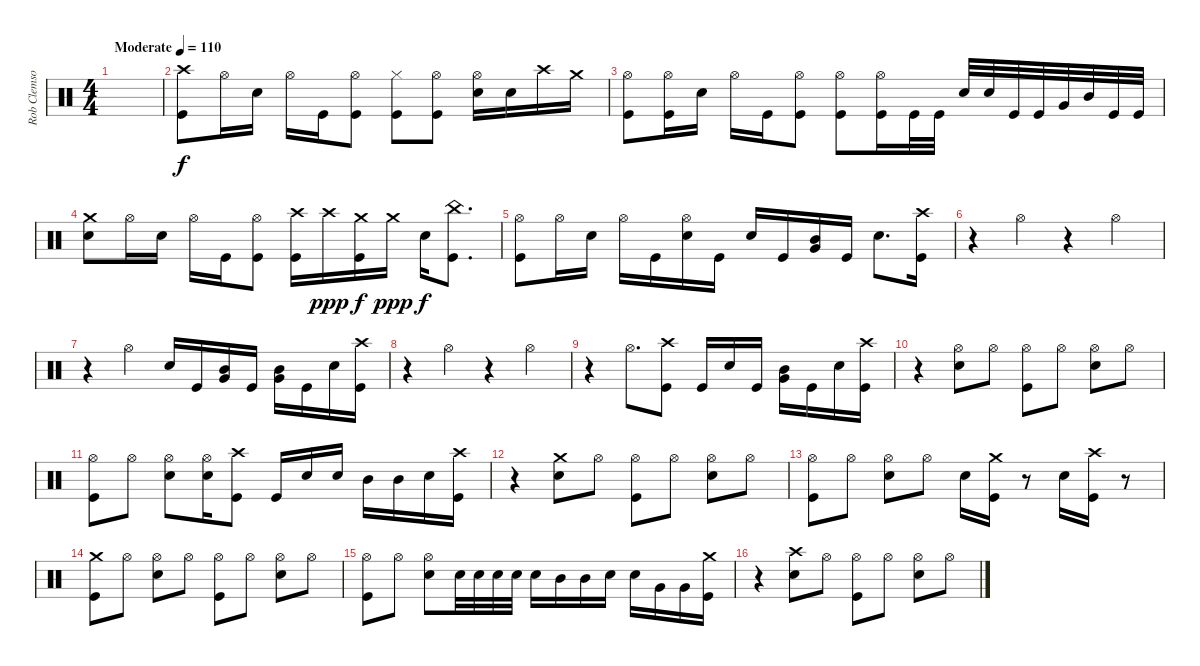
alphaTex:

\track ("Rob Clemson" "Rob Clemso") {instrument percussion}
\staff {score}
\articulation defaults
\ts (4 4)
\tempo (110 "Moderate")
\clef neutral
\ks c
|
("Kick (hit)" "Crash high (hit)").8 "Hi-Hat (open)".16 "Electric Snare (hit)".16 "Hi-Hat (open)".16 "Kick (hit)".16 ("Hi-Hat (open)" "Kick (hit)").8 ("Hi-Hat (closed)" "Kick (hit)").8 ("Hi-Hat (open)" "Kick (hit)").8 ("Hi-Hat (open)" "Electric Snare (hit)").16 "Electric Snare (hit)".16 "Crash high (hit)".16 "Crash medium (hit)".16 |
("Kick (hit)" "Hi-Hat (open)").8 ("Hi-Hat (open)" "Kick (hit)").16 "Electric Snare (hit)".16 "Hi-Hat (open)".16 "Kick (hit)".16 ("Hi-Hat (open)" "Kick (hit)").8 ("Hi-Hat (open)" "Kick (hit)").8 ("Hi-Hat (open)" "Kick (hit)").16 "Kick (hit)".32 "Kick (hit)".32 "Electric Snare (hit)".32 "Electric Snare (hit)".32 "Kick (hit)".32 "Kick (hit)".32 "Very Low Tom (hit)".32 "Mid Tom (hit)".32 "Kick (hit)".32 "Kick (hit)".32 |
("Electric Snare (hit)" "Crash medium (hit)").8 "Hi-Hat (open)".16 "Electric Snare (hit)".16 "Hi-Hat (open)".16 "Kick (hit)".16 ("Kick (hit)" "Hi-Hat (open)").8 ("Kick (hit)" "Crash high (hit)").16 "Crash high (hit)".16{dy ppp} ("Kick (hit)" "Crash medium (hit)").16{dy f} "Crash medium (hit)".16{dy ppp} "Electric Snare (hit)".16{dy f} ("Kick (hit)" "China (hit)").8{d} |
("Kick (hit)" "Hi-Hat (open)").8 "Hi-Hat (open)".16 "Electric Snare (hit)".16 "Hi-Hat (open)".16 "Kick (hit)".16 ("Electric Snare (hit)" "Hi-Hat (open)").16 "Kick (hit)".16 "Electric Snare (hit)".16 "Kick (hit)".16 ("Mid Tom (hit)" "Very Low Tom (hit)").16 "Kick (hit)".16 "Electric Snare (hit)".8{d} ("Crash high (hit)" "Kick (hit)").16 |
r.4 "Hi-Hat (open)".4 r.4 "Hi-Hat (open)".4 |
r.4 "Hi-Hat (open)".4 "Electric Snare (hit)".16 "Kick (hit)".16 ("Mid Tom (hit)" "Very Low Tom (hit)").16 "Kick (hit)".16 ("Mid Tom (hit)" "Very Low Tom (hit)").16 "Kick (hit)".16 "Electric Snare (hit)".16 ("Kick (hit)" "Crash high (hit)").16 |
r.4 "Hi-Hat (open)".4 r.4 "Hi-Hat (open)".4 |
r.4 "Hi-Hat (open)".8{d} ("Crash high (hit)" "Kick (hit)").8 "Kick (hit)".16 "Electric Snare (hit)".16 "Kick (hit)".16 ("Mid Tom (hit)" "Very Low Tom (hit)").16 "Kick (hit)".16 "Electric Snare (hit)".16 ("Kick (hit)" "Crash high (hit)").16 |
r.4 ("Hi-Hat (open)" "Electric Snare (hit)").8 "Hi-Hat (open)".8 ("Kick (hit)" "Hi-Hat (open)").8 "Hi-Hat (open)".8 ("Electric Snare (hit)" "Hi-Hat (open)").8 "Hi-Hat (open)".8 |
("Kick (hit)" "Hi-Hat (open)").8 "Hi-Hat (open)".8 ("Electric Snare (hit)" "Hi-Hat (open)").8 ("Hi-Hat (open)" "Electric Snare (hit)").16 ("Kick (hit)" "Crash high (hit)").8 "Kick (hit)".16 "Electric Snare (hit)".16 "Electric Snare (hit)".16 "Mid Tom (hit)".16 "Mid Tom (hit)".16 "Electric Snare (hit)".16 ("Kick (hit)" "Crash high (hit)").16 |
r.4 ("Crash medium (hit)" "Electric Snare (hit)").8 "Hi-Hat (open)".8 ("Kick (hit)" "Hi-Hat (open)").8 "Hi-Hat (open)".8 ("Electric Snare (hit)" "Hi-Hat (open)").8 "Hi-Hat (open)".8 |
("Kick (hit)" "Hi-Hat (open)").8 "Hi-Hat (open)".8 ("Electric Snare (hit)" "Hi-Hat (open)").8 "Hi-Hat (open)".8 "Electric Snare (hit)".16 ("Kick (hit)" "Crash medium (hit)").16 r.8 "Electric Snare (hit)".16 ("Kick (hit)" "Crash high (hit)").16 r.8 |
("Crash medium (hit)" "Kick (hit)").8 "Hi-Hat (open)".8 ("Hi-Hat (open)" "Electric Snare (hit)").8 "Hi-Hat (open)".8 ("Kick (hit)" "Hi-Hat (open)").8 "Hi-Hat (open)".8 ("Electric Snare (hit)" "Hi-Hat (open)").8 "Hi-Hat (open)".8 |
("Kick (hit)" "Hi-Hat (open)").8 "Hi-Hat (open)".8 ("Electric Snare (hit)" "Hi-Hat (open)").8 "Electric Snare (hit)".32 "Electric Snare (hit)".32 "Electric Snare (hit)".32 "Electric Snare (hit)".32 "Electric Snare (hit)".16 "Mid Tom (hit)".16 "Mid Tom (hit)".16 "Electric Snare (hit)".16 "Electric Snare (hit)".16 "Very Low Tom (hit)".16 "Very Low Tom (hit)".16 ("Kick (hit)" "Crash medium (hit)").16 |
r.4 ("Crash high (hit)" "Electric Snare (hit)").8 "Hi-Hat (open)".8 ("Kick (hit)" "Hi-Hat (open)").8 "Hi-Hat (open)".8 ("Electric Snare (hit)" "Hi-Hat (open)").8 "Hi-Hat (open)".8
